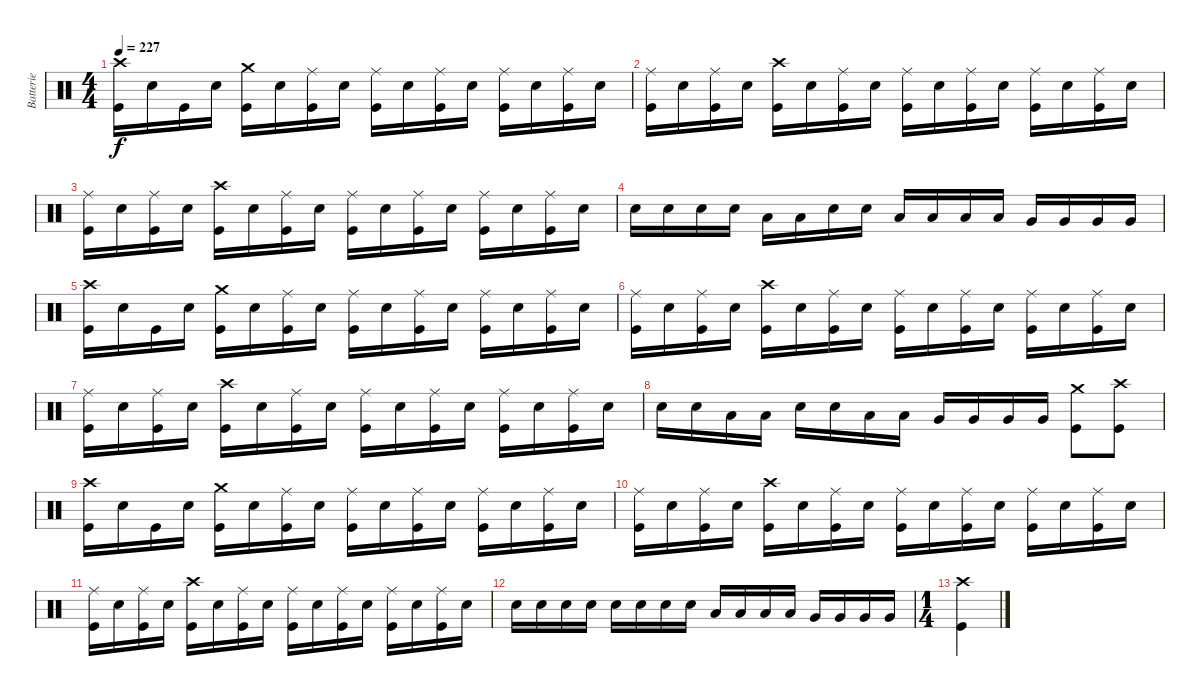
\track ("Batterie" "Batterie") {instrument percussion}
\staff {score}
\articulation defaults
\ts (4 4)
\tempo 227
\clef neutral
\ks c
("Crash high (hit)" "Kick (hit)").16{dy f} "Electric Snare (hit)".16 "Kick (hit)".16 "Electric Snare (hit)".16 ("Crash medium (hit)" "Kick (hit)").16 "Electric Snare (hit)".16 ("Ride (middle)" "Kick (hit)").16 "Electric Snare (hit)".16 ("Ride (middle)" "Kick (hit)").16 "Electric Snare (hit)".16 ("Ride (middle)" "Kick (hit)").16 "Electric Snare (hit)".16 ("Ride (middle)" "Kick (hit)").16 "Electric Snare (hit)".16 ("Ride (middle)" "Kick (hit)").16 "Electric Snare (hit)".16 |
("Ride (middle)" "Kick (hit)").16 "Electric Snare (hit)".16 ("Ride (middle)" "Kick (hit)").16 "Electric Snare (hit)".16 ("Crash high (hit)" "Kick (hit)").16 "Electric Snare (hit)".16 ("Ride (middle)" "Kick (hit)").16 "Electric Snare (hit)".16 ("Ride (middle)" "Kick (hit)").16 "Electric Snare (hit)".16 ("Ride (middle)" "Kick (hit)").16 "Electric Snare (hit)".16 ("Ride (middle)" "Kick (hit)").16 "Electric Snare (hit)".16 ("Ride (middle)" "Kick (hit)").16 "Electric Snare (hit)".16 |
("Ride (middle)" "Kick (hit)").16 "Electric Snare (hit)".16 ("Ride (middle)" "Kick (hit)").16 "Electric Snare (hit)".16 ("Crash high (hit)" "Kick (hit)").16 "Electric Snare (hit)".16 ("Ride (middle)" "Kick (hit)").16 "Electric Snare (hit)".16 ("Ride (middle)" "Kick (hit)").16 "Electric Snare (hit)".16 ("Ride (middle)" "Kick (hit)").16 "Electric Snare (hit)".16 ("Ride (middle)" "Kick (hit)").16 "Electric Snare (hit)".16 ("Ride (middle)" "Kick (hit)").16 "Electric Snare (hit)".16 |
"Electric Snare (hit)".16 "Electric Snare (hit)".16 "Electric Snare (hit)".16 "Electric Snare (hit)".16 "Low Tom (hit)".16 "Low Tom (hit)".16 "Electric Snare (hit)".16 "Electric Snare (hit)".16 "Low Tom (hit)".16 "Low Tom (hit)".16 "Low Tom (hit)".16 "Low Tom (hit)".16 "Very Low Tom (hit)".16 "Very Low Tom (hit)".16 "Very Low Tom (hit)".16 "Very Low Tom (hit)".16 |
("Crash high (hit)" "Kick (hit)").16 "Electric Snare (hit)".16 "Kick (hit)".16 "Electric Snare (hit)".16 ("Crash medium (hit)" "Kick (hit)").16 "Electric Snare (hit)".16 ("Ride (middle)" "Kick (hit)").16 "Electric Snare (hit)".16 ("Ride (middle)" "Kick (hit)").16 "Electric Snare (hit)".16 ("Ride (middle)" "Kick (hit)").16 "Electric Snare (hit)".16 ("Ride (middle)" "Kick (hit)").16 "Electric Snare (hit)".16 ("Ride (middle)" "Kick (hit)").16 "Electric Snare (hit)".16 |
("Ride (middle)" "Kick (hit)").16 "Electric Snare (hit)".16 ("Ride (middle)" "Kick (hit)").16 "Electric Snare (hit)".16 ("Crash high (hit)" "Kick (hit)").16 "Electric Snare (hit)".16 ("Ride (middle)" "Kick (hit)").16 "Electric Snare (hit)".16 ("Ride (middle)" "Kick (hit)").16 "Electric Snare (hit)".16 ("Ride (middle)" "Kick (hit)").16 "Electric Snare (hit)".16 ("Ride (middle)" "Kick (hit)").16 "Electric Snare (hit)".16 ("Ride (middle)" "Kick (hit)").16 "Electric Snare (hit)".16 |
("Ride (middle)" "Kick (hit)").16 "Electric Snare (hit)".16 ("Ride (middle)" "Kick (hit)").16 "Electric Snare (hit)".16 ("Crash high (hit)" "Kick (hit)").16 "Electric Snare (hit)".16 ("Ride (middle)" "Kick (hit)").16 "Electric Snare (hit)".16 ("Ride (middle)" "Kick (hit)").16 "Electric Snare (hit)".16 ("Ride (middle)" "Kick (hit)").16 "Electric Snare (hit)".16 ("Ride (middle)" "Kick (hit)").16 "Electric Snare (hit)".16 ("Ride (middle)" "Kick (hit)").16 "Electric Snare (hit)".16 |
"Electric Snare (hit)".16 "Electric Snare (hit)".16 "Low Tom (hit)".16 "Low Tom (hit)".16 "Electric Snare (hit)".16 "Electric Snare (hit)".16 "Low Tom (hit)".16 "Low Tom (hit)".16 "Very Low Tom (hit)".16 "Very Low Tom (hit)".16 "Very Low Tom (hit)".16 "Very Low Tom (hit)".16 ("Crash medium (hit)" "Kick (hit)").8 ("Crash high (hit)" "Kick (hit)").8 |
("Crash high (hit)" "Kick (hit)").16 "Electric Snare (hit)".16 "Kick (hit)".16 "Electric Snare (hit)".16 ("Crash medium (hit)" "Kick (hit)").16 "Electric Snare (hit)".16 ("Ride (middle)" "Kick (hit)").16 "Electric Snare (hit)".16 ("Ride (middle)" "Kick (hit)").16 "Electric Snare (hit)".16 ("Ride (middle)" "Kick (hit)").16 "Electric Snare (hit)".16 ("Ride (middle)" "Kick (hit)").16 "Electric Snare (hit)".16 ("Ride (middle)" "Kick (hit)").16 "Electric Snare (hit)".16 |
("Ride (middle)" "Kick (hit)").16 "Electric Snare (hit)".16 ("Ride (middle)" "Kick (hit)").16 "Electric Snare (hit)".16 ("Crash high (hit)" "Kick (hit)").16 "Electric Snare (hit)".16 ("Ride (middle)" "Kick (hit)").16 "Electric Snare (hit)".16 ("Ride (middle)" "Kick (hit)").16 "Electric Snare (hit)".16 ("Ride (middle)" "Kick (hit)").16 "Electric Snare (hit)".16 ("Ride (middle)" "Kick (hit)").16 "Electric Snare (hit)".16 ("Ride (middle)" "Kick (hit)").16 "Electric Snare (hit)".16 |
("Ride (middle)" "Kick (hit)").16 "Electric Snare (hit)".16 ("Ride (middle)" "Kick (hit)").16 "Electric Snare (hit)".16 ("Crash high (hit)" "Kick (hit)").16 "Electric Snare (hit)".16 ("Ride (middle)" "Kick (hit)").16 "Electric Snare (hit)".16 ("Ride (middle)" "Kick (hit)").16 "Electric Snare (hit)".16 ("Ride (middle)" "Kick (hit)").16 "Electric Snare (hit)".16 ("Ride (middle)" "Kick (hit)").16 "Electric Snare (hit)".16 ("Ride (middle)" "Kick (hit)").16 "Electric Snare (hit)".16 |
"Electric Snare (hit)".16 "Electric Snare (hit)".16 "Electric Snare (hit)".16 "Electric Snare (hit)".16 "Electric Snare (hit)".16 "Electric Snare (hit)".16 "Electric Snare (hit)".16 "Electric Snare (hit)".16 "Low Tom (hit)".16 "Low Tom (hit)".16 "Low Tom (hit)".16 "Low Tom (hit)".16 "Very Low Tom (hit)".16 "Very Low Tom (hit)".16 "Very Low Tom (hit)".16 "Very Low Tom (hit)".16 |
\ts (1 4)
("Crash high (hit)" "Kick (hit)").4
